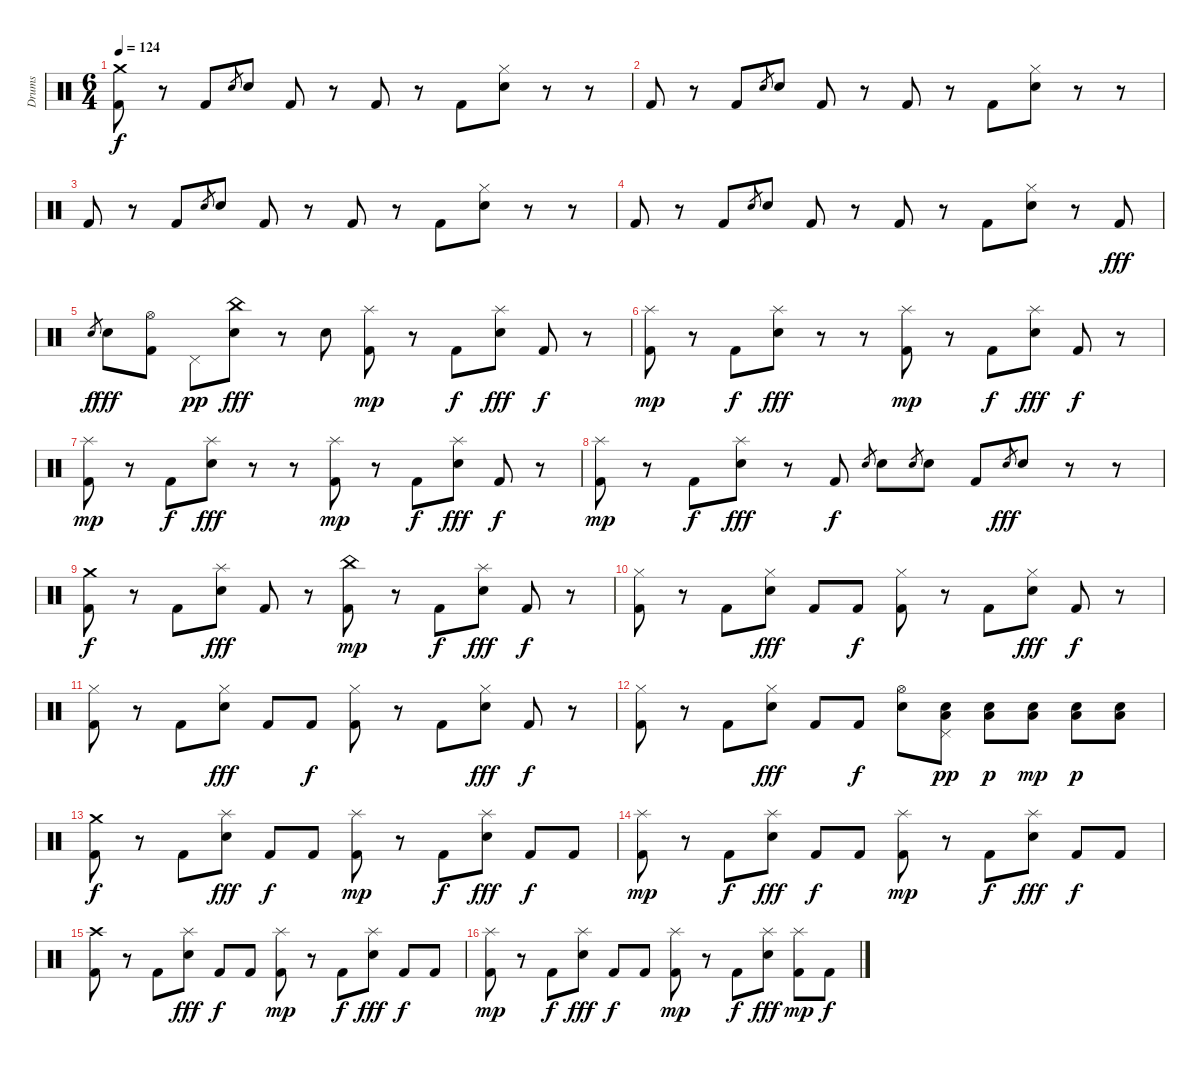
\track ("Drums" "Drums") {instrument percussion}
\staff {score}
\articulation defaults
\ts (6 4)
\tempo 124
\clef neutral
\ks c
("Crash medium (hit)" "Kick (hit) 2").8{dy f} r.8 "Kick (hit) 2".8 "Electric Snare (hit)".8{gr} "Electric Snare (hit)".8 "Kick (hit) 2".8 r.8 "Kick (hit) 2".8 r.8 "Kick (hit) 2".8 ("Hi-Hat (closed)" "Electric Snare (hit)").8 r.8 r.8 |
"Kick (hit) 2".8 r.8 "Kick (hit) 2".8 "Electric Snare (hit)".8{gr} "Electric Snare (hit)".8 "Kick (hit) 2".8 r.8 "Kick (hit) 2".8 r.8 "Kick (hit) 2".8 ("Hi-Hat (closed)" "Electric Snare (hit)").8 r.8 r.8 |
"Kick (hit) 2".8 r.8 "Kick (hit) 2".8 "Electric Snare (hit)".8{gr} "Electric Snare (hit)".8 "Kick (hit) 2".8 r.8 "Kick (hit) 2".8 r.8 "Kick (hit) 2".8 ("Hi-Hat (closed)" "Electric Snare (hit)").8 r.8 r.8 |
"Kick (hit) 2".8 r.8 "Kick (hit) 2".8 "Electric Snare (hit)".8{gr} "Electric Snare (hit)".8 "Kick (hit) 2".8 r.8 "Kick (hit) 2".8 r.8 "Kick (hit) 2".8 ("Hi-Hat (closed)" "Electric Snare (hit)").8 r.8 "Kick (hit) 2".8{dy fff} |
"Electric Snare (hit)".8{gr dy f} "Electric Snare (hit)".8{dy fff} ("Hi-Hat (open)" "Kick (hit) 2").8 "Pedal Hi-Hat (hit)".8{dy pp} ("China (hit)" "Electric Snare (hit)").8{dy fff} r.8 "Electric Snare (hit)".8 ("Splash (hit)" "Kick (hit) 2").8{dy mp} r.8 "Kick (hit) 2".8{dy f} ("Splash (hit)" "Electric Snare (hit)").8{dy fff} "Kick (hit) 2".8{dy f} r.8 |
("Splash (hit)" "Kick (hit) 2").8{dy mp} r.8 "Kick (hit) 2".8{dy f} ("Splash (hit)" "Electric Snare (hit)").8{dy fff} r.8 r.8 ("Splash (hit)" "Kick (hit) 2").8{dy mp} r.8 "Kick (hit) 2".8{dy f} ("Splash (hit)" "Electric Snare (hit)").8{dy fff} "Kick (hit) 2".8{dy f} r.8 |
("Splash (hit)" "Kick (hit) 2").8{dy mp} r.8 "Kick (hit) 2".8{dy f} ("Splash (hit)" "Electric Snare (hit)").8{dy fff} r.8 r.8 ("Splash (hit)" "Kick (hit) 2").8{dy mp} r.8 "Kick (hit) 2".8{dy f} ("Splash (hit)" "Electric Snare (hit)").8{dy fff} "Kick (hit) 2".8{dy f} r.8 |
("Splash (hit)" "Kick (hit) 2").8{dy mp} r.8 "Kick (hit) 2".8{dy f} ("Splash (hit)" "Electric Snare (hit)").8{dy fff} r.8 "Kick (hit) 2".8{dy f} "Electric Snare (hit)".8{gr} "Electric Snare (hit)".8 "Electric Snare (hit)".8{gr} "Electric Snare (hit)".8 "Kick (hit) 2".8 "Electric Snare (hit)".8{gr dy fff} "Electric Snare (hit)".8 r.8 r.8 |
("Crash medium (hit)" "Kick (hit) 2").8{dy f} r.8 "Kick (hit) 2".8 ("Splash (hit)" "Electric Snare (hit)").8{dy fff} "Kick (hit) 2".8 r.8 ("China (hit)" "Kick (hit) 2").8{dy mp} r.8 "Kick (hit) 2".8{dy f} ("Splash (hit)" "Electric Snare (hit)").8{dy fff} "Kick (hit) 2".8{dy f} r.8 |
("Hi-Hat (closed)" "Kick (hit) 2").8 r.8 "Kick (hit) 2".8 ("Hi-Hat (closed)" "Electric Snare (hit)").8{dy fff} "Kick (hit) 2".8 "Kick (hit) 2".8{dy f} ("Hi-Hat (closed)" "Kick (hit) 2").8 r.8 "Kick (hit) 2".8 ("Hi-Hat (closed)" "Electric Snare (hit)").8{dy fff} "Kick (hit) 2".8{dy f} r.8 |
("Hi-Hat (closed)" "Kick (hit) 2").8 r.8 "Kick (hit) 2".8 ("Hi-Hat (closed)" "Electric Snare (hit)").8{dy fff} "Kick (hit) 2".8 "Kick (hit) 2".8{dy f} ("Hi-Hat (closed)" "Kick (hit) 2").8 r.8 "Kick (hit) 2".8 ("Hi-Hat (closed)" "Electric Snare (hit)").8{dy fff} "Kick (hit) 2".8{dy f} r.8 |
("Hi-Hat (closed)" "Kick (hit) 2").8 r.8 "Kick (hit) 2".8 ("Hi-Hat (closed)" "Electric Snare (hit)").8{dy fff} "Kick (hit) 2".8 "Kick (hit) 2".8{dy f} ("Hi-Hat (open)" "Electric Snare (hit)").8 ("Pedal Hi-Hat (hit)" "Electric Snare (hit)" "Low Tom (hit)").8{dy pp} ("Electric Snare (hit)" "Low Tom (hit)").8{dy p} ("Electric Snare (hit)" "Low Tom (hit)").8{dy mp} ("Electric Snare (hit)" "Low Tom (hit)").8{dy p} ("Electric Snare (hit)" "Low Tom (hit)").8 |
("Crash medium (hit)" "Kick (hit) 2").8{dy f} r.8 "Kick (hit) 2".8 ("Splash (hit)" "Electric Snare (hit)").8{dy fff} "Kick (hit) 2".8{dy f} "Kick (hit) 2".8 ("Splash (hit)" "Kick (hit) 2").8{dy mp} r.8 "Kick (hit) 2".8{dy f} ("Splash (hit)" "Electric Snare (hit)").8{dy fff} "Kick (hit) 2".8{dy f} "Kick (hit) 2".8 |
("Splash (hit)" "Kick (hit) 2").8{dy mp} r.8 "Kick (hit) 2".8{dy f} ("Splash (hit)" "Electric Snare (hit)").8{dy fff} "Kick (hit) 2".8{dy f} "Kick (hit) 2".8 ("Splash (hit)" "Kick (hit) 2").8{dy mp} r.8 "Kick (hit) 2".8{dy f} ("Splash (hit)" "Electric Snare (hit)").8{dy fff} "Kick (hit) 2".8{dy f} "Kick (hit) 2".8 |
("Crash high (hit)" "Kick (hit) 2").8 r.8 "Kick (hit) 2".8 ("Splash (hit)" "Electric Snare (hit)").8{dy fff} "Kick (hit) 2".8{dy f} "Kick (hit) 2".8 ("Splash (hit)" "Kick (hit) 2").8{dy mp} r.8 "Kick (hit) 2".8{dy f} ("Splash (hit)" "Electric Snare (hit)").8{dy fff} "Kick (hit) 2".8{dy f} "Kick (hit) 2".8 |
("Splash (hit)" "Kick (hit) 2").8{dy mp} r.8 "Kick (hit) 2".8{dy f} ("Splash (hit)" "Electric Snare (hit)").8{dy fff} "Kick (hit) 2".8{dy f} "Kick (hit) 2".8 ("Splash (hit)" "Kick (hit) 2").8{dy mp} r.8 "Kick (hit) 2".8{dy f} ("Splash (hit)" "Electric Snare (hit)").8{dy fff} ("Splash (hit)" "Kick (hit) 2").8{dy mp} "Kick (hit) 2".8{dy f}
